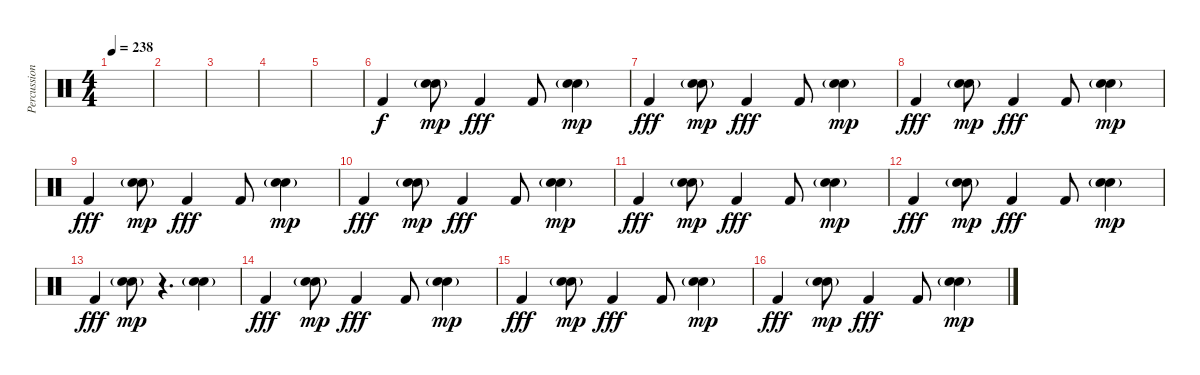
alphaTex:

\track ("Percussion" "Percussion") {instrument percussion}
\staff {score}
\articulation defaults
\ts (4 4)
\tempo 238
\clef neutral
\ks c
|
|
|
|
|
"Kick (hit) 2".4 ("Hand Clap (hit)"{g} "Hand Clap (hit)"{g}).8{bd 480 dy mp} "Kick (hit) 2".4{dy fff} "Kick (hit) 2".8 ("Hand Clap (hit)"{g} "Hand Clap (hit)"{g}).4{bd 480 dy mp} |
"Kick (hit) 2".4{dy fff} ("Hand Clap (hit)"{g} "Hand Clap (hit)"{g}).8{bd 480 dy mp} "Kick (hit) 2".4{dy fff} "Kick (hit) 2".8 ("Hand Clap (hit)"{g} "Hand Clap (hit)"{g}).4{bd 480 dy mp} |
"Kick (hit) 2".4{dy fff} ("Hand Clap (hit)"{g} "Hand Clap (hit)"{g}).8{bd 480 dy mp} "Kick (hit) 2".4{dy fff} "Kick (hit) 2".8 ("Hand Clap (hit)"{g} "Hand Clap (hit)"{g}).4{bd 480 dy mp} |
"Kick (hit) 2".4{dy fff} ("Hand Clap (hit)"{g} "Hand Clap (hit)"{g}).8{bd 480 dy mp} "Kick (hit) 2".4{dy fff} "Kick (hit) 2".8 ("Hand Clap (hit)"{g} "Hand Clap (hit)"{g}).4{bd 480 dy mp} |
"Kick (hit) 2".4{dy fff} ("Hand Clap (hit)"{g} "Hand Clap (hit)"{g}).8{bd 480 dy mp} "Kick (hit) 2".4{dy fff} "Kick (hit) 2".8 ("Hand Clap (hit)"{g} "Hand Clap (hit)"{g}).4{bd 480 dy mp} |
"Kick (hit) 2".4{dy fff} ("Hand Clap (hit)"{g} "Hand Clap (hit)"{g}).8{bd 480 dy mp} "Kick (hit) 2".4{dy fff} "Kick (hit) 2".8 ("Hand Clap (hit)"{g} "Hand Clap (hit)"{g}).4{bd 480 dy mp} |
"Kick (hit) 2".4{dy fff} ("Hand Clap (hit)"{g} "Hand Clap (hit)"{g}).8{bd 480 dy mp} "Kick (hit) 2".4{dy fff} "Kick (hit) 2".8 ("Hand Clap (hit)"{g} "Hand Clap (hit)"{g}).4{bd 480 dy mp} |
"Kick (hit) 2".4{dy fff} ("Hand Clap (hit)"{g} "Hand Clap (hit)"{g}).8{bd 480 dy mp} r.4{d} ("Hand Clap (hit)"{g} "Hand Clap (hit)"{g}).4{bd 480} |
"Kick (hit) 2".4{dy fff} ("Hand Clap (hit)"{g} "Hand Clap (hit)"{g}).8{bd 480 dy mp} "Kick (hit) 2".4{dy fff} "Kick (hit) 2".8 ("Hand Clap (hit)"{g} "Hand Clap (hit)"{g}).4{bd 480 dy mp} |
"Kick (hit) 2".4{dy fff} ("Hand Clap (hit)"{g} "Hand Clap (hit)"{g}).8{bd 480 dy mp} "Kick (hit) 2".4{dy fff} "Kick (hit) 2".8 ("Hand Clap (hit)"{g} "Hand Clap (hit)"{g}).4{bd 480 dy mp} |
"Kick (hit) 2".4{dy fff} ("Hand Clap (hit)"{g} "Hand Clap (hit)"{g}).8{bd 480 dy mp} "Kick (hit) 2".4{dy fff} "Kick (hit) 2".8 ("Hand Clap (hit)"{g} "Hand Clap (hit)"{g}).4{bd 480 dy mp}
